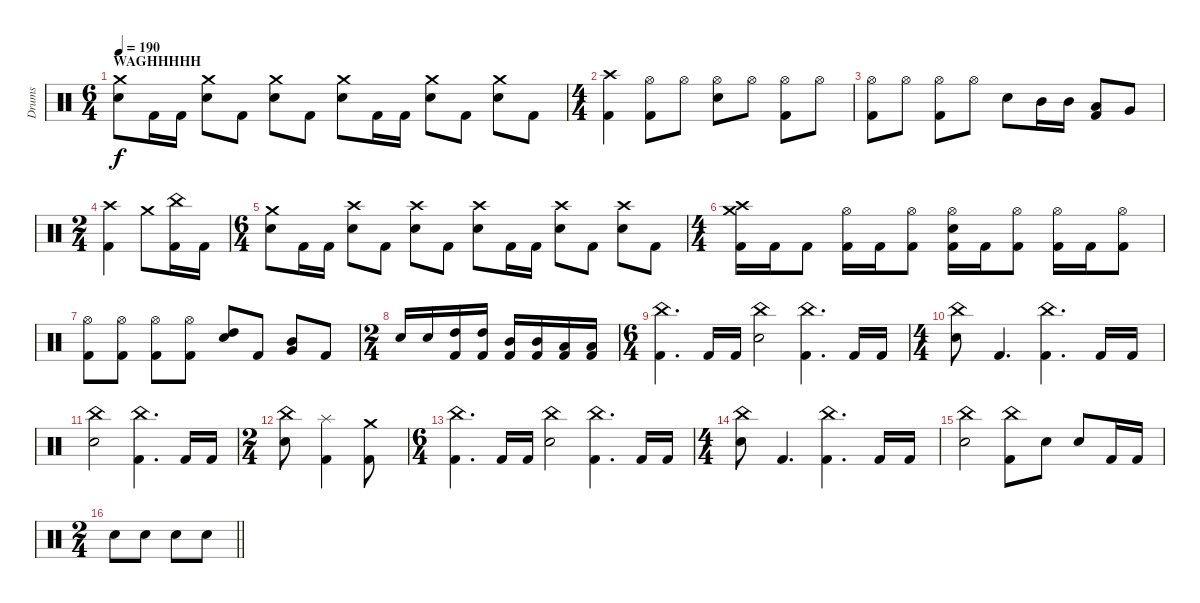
\track ("Drums" "Drums") {instrument percussion}
\staff {score}
\articulation defaults
\ts (6 4)
\section ("" "WAGHHHHH")
\tempo 190
\clef neutral
\ks c
("Crash medium (hit)" "Electric Snare (hit)").8{dy f} "Kick (hit) 2".16 "Kick (hit) 2".16 ("Crash medium (hit)" "Electric Snare (hit)").8 "Kick (hit) 2".8 ("Crash medium (hit)" "Electric Snare (hit)").8 "Kick (hit) 2".8 ("Crash medium (hit)" "Electric Snare (hit)").8 "Kick (hit) 2".16 "Kick (hit) 2".16 ("Crash medium (hit)" "Electric Snare (hit)").8 "Kick (hit) 2".8 ("Crash medium (hit)" "Electric Snare (hit)").8 "Kick (hit) 2".8 |
\ts (4 4)
("Crash high (hit)" "Kick (hit) 2").4 ("Hi-Hat (open)" "Kick (hit) 2").8 "Hi-Hat (open)".8 ("Hi-Hat (open)" "Electric Snare (hit)").8 "Hi-Hat (open)".8 ("Hi-Hat (open)" "Kick (hit) 2").8 "Hi-Hat (open)".8 |
("Hi-Hat (open)" "Kick (hit) 2").8 "Hi-Hat (open)".8 ("Hi-Hat (open)" "Kick (hit) 2").8 "Hi-Hat (open)".8 "Electric Snare (hit)".8 "Mid Tom (hit)".16 "Mid Tom (hit)".16 ("Low Tom (hit)" "Kick (hit) 2").8 "Very Low Tom (hit)".8 |
\ts (2 4)
("Crash high (hit)" "Kick (hit) 2").4 "Crash medium (hit)".8 ("China (hit)" "Kick (hit) 2").16 "Kick (hit) 2".16 |
\ts (6 4)
("Crash medium (hit)" "Electric Snare (hit)").8 "Kick (hit) 2".16 "Kick (hit) 2".16 ("Crash high (hit)" "Electric Snare (hit)").8 "Kick (hit) 2".8 ("Crash high (hit)" "Electric Snare (hit)").8 "Kick (hit) 2".8 ("Crash high (hit)" "Electric Snare (hit)").8 "Kick (hit) 2".16 "Kick (hit) 2".16 ("Crash high (hit)" "Electric Snare (hit)").8 "Kick (hit) 2".8 ("Crash high (hit)" "Electric Snare (hit)").8 "Kick (hit) 2".8 |
\ts (4 4)
("Crash high (hit)" "Crash medium (hit)" "Kick (hit) 2").16 "Kick (hit) 2".16 "Kick (hit) 2".8 ("Hi-Hat (open)" "Kick (hit) 2").16 "Kick (hit) 2".16 ("Hi-Hat (open)" "Kick (hit) 2").8 ("Hi-Hat (open)" "Electric Snare (hit)" "Kick (hit) 2").16 "Kick (hit) 2".16 ("Hi-Hat (open)" "Kick (hit) 2").8 ("Hi-Hat (open)" "Kick (hit) 2").16 "Kick (hit) 2".16 ("Hi-Hat (open)" "Kick (hit) 2").8 |
("Hi-Hat (open)" "Kick (hit) 2").8 ("Hi-Hat (open)" "Kick (hit) 2").8 ("Hi-Hat (open)" "Kick (hit) 2").8 ("Hi-Hat (open)" "Kick (hit) 2").8 ("High Tom (hit)" "Electric Snare (hit)").8 "Kick (hit) 2".8 ("Mid Tom (hit)" "Very Low Tom (hit)").8 "Kick (hit) 2".8 |
\ts (2 4)
"Electric Snare (hit)".16 "Electric Snare (hit)".16 ("High Tom (hit)" "Kick (hit) 2").16 ("High Tom (hit)" "Kick (hit) 2").16 ("Mid Tom (hit)" "Kick (hit) 2").16 ("Mid Tom (hit)" "Kick (hit) 2").16 ("Low Tom (hit)" "Kick (hit) 2").16 ("Low Tom (hit)" "Kick (hit) 2").16 |
\ts (6 4)
("China (hit)" "Kick (hit) 2").4{d} "Kick (hit) 2".16 "Kick (hit) 2".16 ("China (hit)" "Electric Snare (hit)").2 ("China (hit)" "Kick (hit) 2").4{d} "Kick (hit) 2".16 "Kick (hit) 2".16 |
\ts (4 4)
("China (hit)" "Electric Snare (hit)").8 "Kick (hit) 2".4{d} ("China (hit)" "Kick (hit) 2").4{d} "Kick (hit) 2".16 "Kick (hit) 2".16 |
("China (hit)" "Electric Snare (hit)").2 ("China (hit)" "Kick (hit) 2").4{d} "Kick (hit) 2".16 "Kick (hit) 2".16 |
\ts (2 4)
("China (hit)" "Electric Snare (hit)").8 ("Splash (hit)" "Kick (hit) 2").4 ("Crash medium (hit)" "Kick (hit) 2").8 |
\ts (6 4)
("China (hit)" "Kick (hit) 2").4{d} "Kick (hit) 2".16 "Kick (hit) 2".16 ("China (hit)" "Electric Snare (hit)").2 ("China (hit)" "Kick (hit) 2").4{d} "Kick (hit) 2".16 "Kick (hit) 2".16 |
\ts (4 4)
("China (hit)" "Electric Snare (hit)").8 "Kick (hit) 2".4{d} ("China (hit)" "Kick (hit) 2").4{d} "Kick (hit) 2".16 "Kick (hit) 2".16 |
("China (hit)" "Electric Snare (hit)").2 ("China (hit)" "Kick (hit) 2").8 "Electric Snare (hit)".8 "Electric Snare (hit)".8 "Kick (hit) 2".16 "Kick (hit) 2".16 |
\ts (2 4)
\barLineRight lightlight "Electric Snare (hit)".8 "Electric Snare (hit)".8 "Electric Snare (hit)".8 "Electric Snare (hit)".8
